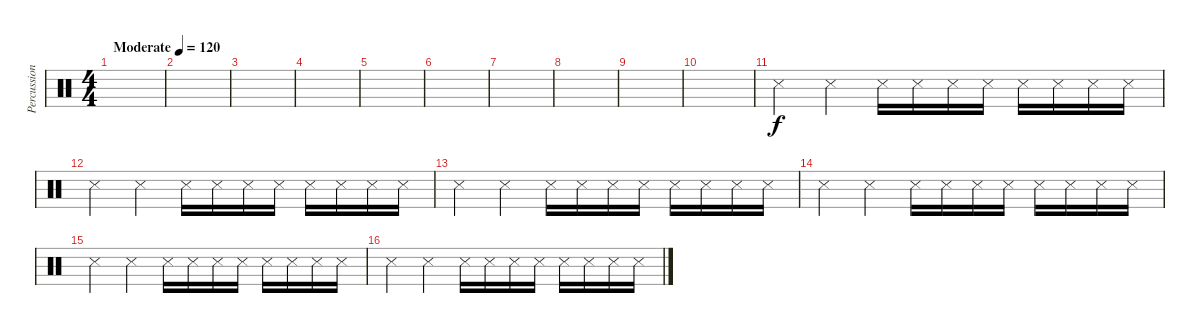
\track ("Percussioni" "Percussion") {instrument percussion}
\staff {score}
\articulation defaults
\ts (4 4)
\tempo (120 "Moderate")
\clef neutral
\ks c
|
|
|
|
|
|
|
|
|
|
"Metronome (hit)".4 "Metronome (hit)".4 "Metronome (hit)".16 "Metronome (hit)".16 "Metronome (hit)".16 "Metronome (hit)".16 "Metronome (hit)".16 "Metronome (hit)".16 "Metronome (hit)".16 "Metronome (hit)".16 |
"Metronome (hit)".4 "Metronome (hit)".4 "Metronome (hit)".16 "Metronome (hit)".16 "Metronome (hit)".16 "Metronome (hit)".16 "Metronome (hit)".16 "Metronome (hit)".16 "Metronome (hit)".16 "Metronome (hit)".16 |
"Metronome (hit)".4 "Metronome (hit)".4 "Metronome (hit)".16 "Metronome (hit)".16 "Metronome (hit)".16 "Metronome (hit)".16 "Metronome (hit)".16 "Metronome (hit)".16 "Metronome (hit)".16 "Metronome (hit)".16 |
"Metronome (hit)".4 "Metronome (hit)".4 "Metronome (hit)".16 "Metronome (hit)".16 "Metronome (hit)".16 "Metronome (hit)".16 "Metronome (hit)".16 "Metronome (hit)".16 "Metronome (hit)".16 "Metronome (hit)".16 |
"Metronome (hit)".4 "Metronome (hit)".4 "Metronome (hit)".16 "Metronome (hit)".16 "Metronome (hit)".16 "Metronome (hit)".16 "Metronome (hit)".16 "Metronome (hit)".16 "Metronome (hit)".16 "Metronome (hit)".16 |
"Metronome (hit)".4 "Metronome (hit)".4 "Metronome (hit)".16 "Metronome (hit)".16 "Metronome (hit)".16 "Metronome (hit)".16 "Metronome (hit)".16 "Metronome (hit)".16 "Metronome (hit)".16 "Metronome (hit)".16
